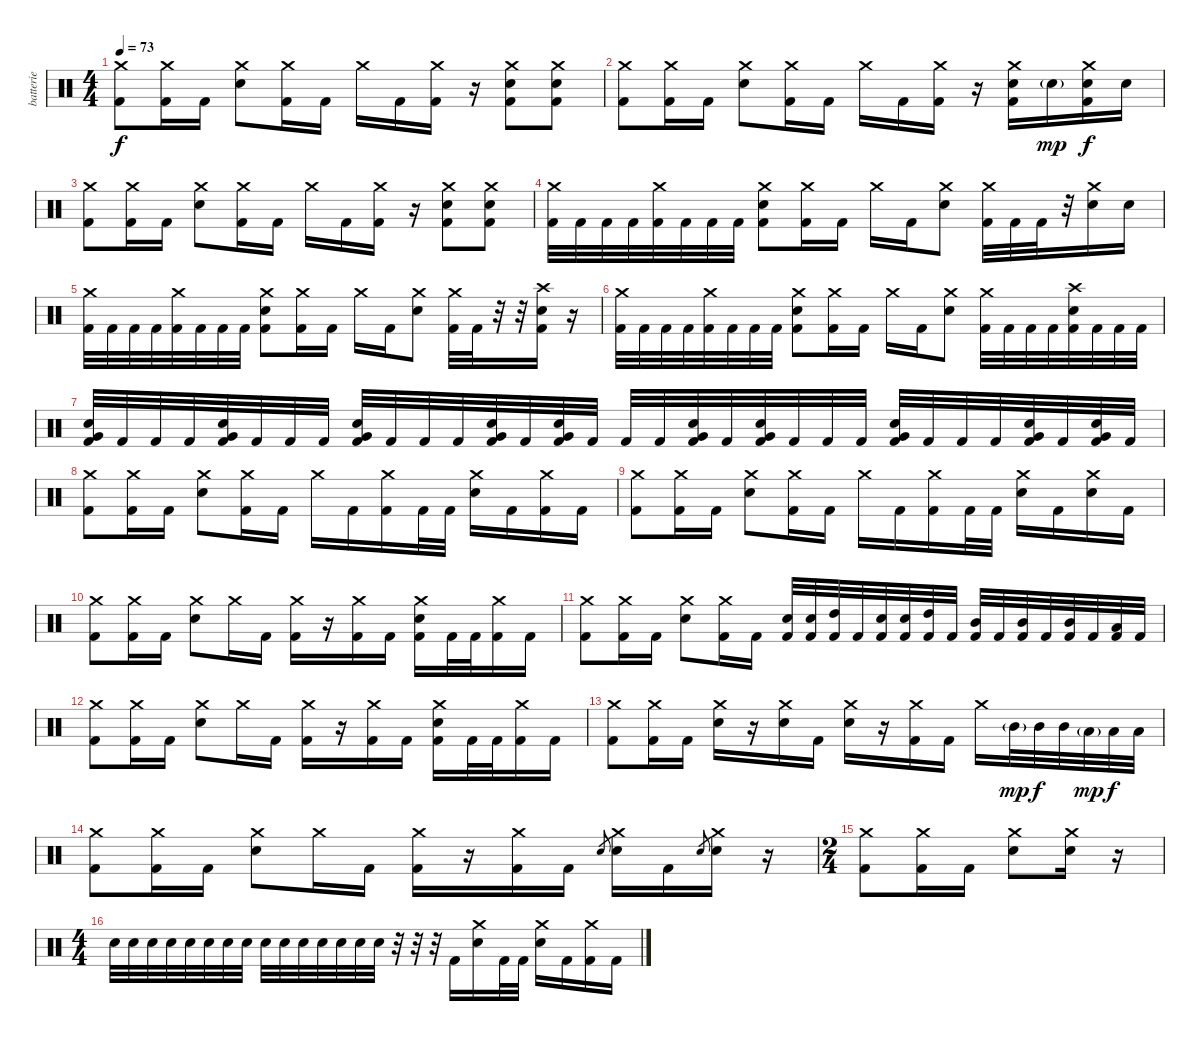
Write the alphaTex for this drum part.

\track ("batterie" "batterie") {instrument percussion}
\staff {score}
\articulation defaults
\ts (4 4)
\tempo 73
\clef neutral
\ks c
("Crash medium (hit)" "Kick (hit) 2").8{dy f} ("Crash medium (hit)" "Kick (hit) 2").16 "Kick (hit) 2".16 ("Crash medium (hit)" "Electric Snare (hit)").8 ("Crash medium (hit)" "Kick (hit) 2").16 "Kick (hit) 2".16 "Crash medium (hit)".16 "Kick (hit) 2".16 ("Crash medium (hit)" "Kick (hit) 2").16 r.16 ("Crash medium (hit)" "Electric Snare (hit)" "Kick (hit) 2").8 ("Crash medium (hit)" "Electric Snare (hit)" "Kick (hit) 2").8 |
("Crash medium (hit)" "Kick (hit) 2").8 ("Crash medium (hit)" "Kick (hit) 2").16 "Kick (hit) 2".16 ("Crash medium (hit)" "Electric Snare (hit)").8 ("Crash medium (hit)" "Kick (hit) 2").16 "Kick (hit) 2".16 "Crash medium (hit)".16 "Kick (hit) 2".16 ("Crash medium (hit)" "Kick (hit) 2").16 r.16 ("Crash medium (hit)" "Electric Snare (hit)" "Kick (hit) 2").16 "Electric Snare (hit)"{g}.16{dy mp} ("Crash medium (hit)" "Electric Snare (hit)" "Kick (hit) 2").16{dy f} "Electric Snare (hit)".16 |
("Crash medium (hit)" "Kick (hit) 2").8 ("Crash medium (hit)" "Kick (hit) 2").16 "Kick (hit) 2".16 ("Crash medium (hit)" "Electric Snare (hit)").8 ("Crash medium (hit)" "Kick (hit) 2").16 "Kick (hit) 2".16 "Crash medium (hit)".16 "Kick (hit) 2".16 ("Crash medium (hit)" "Kick (hit) 2").16 r.16 ("Crash medium (hit)" "Electric Snare (hit)" "Kick (hit) 2").8 ("Crash medium (hit)" "Electric Snare (hit)" "Kick (hit) 2").8 |
("Crash medium (hit)" "Kick (hit) 2").32 "Kick (hit) 2".32 "Kick (hit) 2".32 "Kick (hit) 2".32 ("Crash medium (hit)" "Kick (hit) 2").32 "Kick (hit) 2".32 "Kick (hit) 2".32 "Kick (hit) 2".32 ("Crash medium (hit)" "Electric Snare (hit)" "Kick (hit) 2").8 ("Crash medium (hit)" "Kick (hit) 2").16 "Kick (hit) 2".16 "Crash medium (hit)".16 "Kick (hit) 2".16 ("Crash medium (hit)" "Electric Snare (hit)").8 ("Crash medium (hit)" "Kick (hit) 2").32 "Kick (hit) 2".32 "Kick (hit) 2".32 r.32 ("Crash medium (hit)" "Electric Snare (hit)").16 "Electric Snare (hit)".16 |
("Crash medium (hit)" "Kick (hit) 2").32 "Kick (hit) 2".32 "Kick (hit) 2".32 "Kick (hit) 2".32 ("Crash medium (hit)" "Kick (hit) 2").32 "Kick (hit) 2".32 "Kick (hit) 2".32 "Kick (hit) 2".32 ("Crash medium (hit)" "Electric Snare (hit)" "Kick (hit) 2").8 ("Crash medium (hit)" "Kick (hit) 2").16 "Kick (hit) 2".16 "Crash medium (hit)".16 "Kick (hit) 2".16 ("Crash medium (hit)" "Electric Snare (hit)").8 ("Crash medium (hit)" "Kick (hit) 2").32 "Kick (hit) 2".32 r.32 r.32 ("Crash high (hit)" "Electric Snare (hit)" "Kick (hit) 2").16 r.16 |
("Crash medium (hit)" "Kick (hit) 2").32 "Kick (hit) 2".32 "Kick (hit) 2".32 "Kick (hit) 2".32 ("Crash medium (hit)" "Kick (hit) 2").32 "Kick (hit) 2".32 "Kick (hit) 2".32 "Kick (hit) 2".32 ("Crash medium (hit)" "Electric Snare (hit)" "Kick (hit) 2").8 ("Crash medium (hit)" "Kick (hit) 2").16 "Kick (hit) 2".16 "Crash medium (hit)".16 "Kick (hit) 2".16 ("Crash medium (hit)" "Electric Snare (hit)").8 ("Crash medium (hit)" "Kick (hit) 2").32 "Kick (hit) 2".32 "Kick (hit) 2".32 "Kick (hit) 2".32 ("Crash high (hit)" "Electric Snare (hit)" "Kick (hit) 2").32 "Kick (hit) 2".32 "Kick (hit) 2".32 "Kick (hit) 2".32 |
("Very Low Tom (hit)" "Electric Snare (hit)" "Kick (hit) 2").32 "Kick (hit) 2".32 "Kick (hit) 2".32 "Kick (hit) 2".32 ("Very Low Tom (hit)" "Electric Snare (hit)" "Kick (hit) 2").32 "Kick (hit) 2".32 "Kick (hit) 2".32 "Kick (hit) 2".32 ("Very Low Tom (hit)" "Electric Snare (hit)" "Kick (hit) 2").32 "Kick (hit) 2".32 "Kick (hit) 2".32 "Kick (hit) 2".32 ("Very Low Tom (hit)" "Electric Snare (hit)" "Kick (hit) 2").32 "Kick (hit) 2".32 ("Very Low Tom (hit)" "Electric Snare (hit)" "Kick (hit) 2").32 "Kick (hit) 2".32 "Kick (hit) 2".32 "Kick (hit) 2".32 ("Very Low Tom (hit)" "Electric Snare (hit)" "Kick (hit) 2").32 "Kick (hit) 2".32 ("Very Low Tom (hit)" "Electric Snare (hit)" "Kick (hit) 2").32 "Kick (hit) 2".32 "Kick (hit) 2".32 "Kick (hit) 2".32 ("Very Low Tom (hit)" "Electric Snare (hit)" "Kick (hit) 2").32 "Kick (hit) 2".32 "Kick (hit) 2".32 "Kick (hit) 2".32 ("Very Low Tom (hit)" "Electric Snare (hit)" "Kick (hit) 2").32 "Kick (hit) 2".32 ("Very Low Tom (hit)" "Electric Snare (hit)" "Kick (hit) 2").32 "Kick (hit) 2".32 |
("Crash medium (hit)" "Kick (hit) 2").8 ("Crash medium (hit)" "Kick (hit) 2").16 "Kick (hit) 2".16 ("Crash medium (hit)" "Electric Snare (hit)").8 ("Crash medium (hit)" "Kick (hit) 2").16 "Kick (hit) 2".16 "Crash medium (hit)".16 "Kick (hit) 2".16 ("Crash medium (hit)" "Kick (hit) 2").16 "Kick (hit) 2".32 "Kick (hit) 2".32 ("Crash medium (hit)" "Electric Snare (hit)").16 "Kick (hit) 2".16 ("Crash medium (hit)" "Kick (hit) 2").16 "Kick (hit) 2".16 |
("Crash medium (hit)" "Kick (hit) 2").8 ("Crash medium (hit)" "Kick (hit) 2").16 "Kick (hit) 2".16 ("Crash medium (hit)" "Electric Snare (hit)").8 ("Crash medium (hit)" "Kick (hit) 2").16 "Kick (hit) 2".16 "Crash medium (hit)".16 "Kick (hit) 2".16 ("Crash medium (hit)" "Kick (hit) 2").16 "Kick (hit) 2".32 "Kick (hit) 2".32 ("Crash medium (hit)" "Electric Snare (hit)").16 "Kick (hit) 2".16 ("Crash medium (hit)" "Electric Snare (hit)").16 "Kick (hit) 2".16 |
("Crash medium (hit)" "Kick (hit) 2").8 ("Crash medium (hit)" "Kick (hit) 2").16 "Kick (hit) 2".16 ("Crash medium (hit)" "Electric Snare (hit)").8 "Crash medium (hit)".16 "Kick (hit) 2".16 ("Crash medium (hit)" "Kick (hit) 2").16 r.16 ("Crash medium (hit)" "Kick (hit) 2").16 "Kick (hit) 2".16 ("Crash medium (hit)" "Electric Snare (hit)" "Kick (hit) 2").16 "Kick (hit) 2".32 "Kick (hit) 2".32 ("Crash medium (hit)" "Kick (hit) 2").16 "Kick (hit) 2".16 |
("Crash medium (hit)" "Kick (hit) 2").8 ("Crash medium (hit)" "Kick (hit) 2").16 "Kick (hit) 2".16 ("Crash medium (hit)" "Electric Snare (hit)").8 ("Crash medium (hit)" "Kick (hit) 2").16 "Kick (hit) 2".16 ("Snare (hit) 2" "Kick (hit) 2").32 ("Snare (hit) 2" "Kick (hit) 2").32 ("High Tom (hit)" "Kick (hit) 2").32 "Kick (hit) 2".32 ("Snare (hit) 2" "Kick (hit) 2").32 ("Snare (hit) 2" "Kick (hit) 2").32 ("High Tom (hit)" "Kick (hit) 2").32 "Kick (hit) 2".32 ("Mid Tom (hit)" "Kick (hit) 2").32 "Kick (hit) 2".32 ("Mid Tom (hit)" "Kick (hit) 2").32 "Kick (hit) 2".32 ("Mid Tom (hit)" "Kick (hit) 2").32 "Kick (hit) 2".32 ("Low Tom (hit)" "Kick (hit) 2").32 "Kick (hit) 2".32 |
("Crash medium (hit)" "Kick (hit) 2").8 ("Crash medium (hit)" "Kick (hit) 2").16 "Kick (hit) 2".16 ("Crash medium (hit)" "Electric Snare (hit)").8 "Crash medium (hit)".16 "Kick (hit) 2".16 ("Crash medium (hit)" "Kick (hit) 2").16 r.16 ("Crash medium (hit)" "Kick (hit) 2").16 "Kick (hit) 2".16 ("Crash medium (hit)" "Electric Snare (hit)" "Kick (hit) 2").16 "Kick (hit) 2".32 "Kick (hit) 2".32 ("Crash medium (hit)" "Kick (hit) 2").16 "Kick (hit) 2".16 |
("Crash medium (hit)" "Kick (hit) 2").8 ("Crash medium (hit)" "Kick (hit) 2").16 "Kick (hit) 2".16 ("Crash medium (hit)" "Electric Snare (hit)").16 r.16 ("Crash medium (hit)" "Snare (hit) 2").16 "Kick (hit) 2".16 ("Crash medium (hit)" "Snare (hit) 2").16 r.16 ("Crash medium (hit)" "Kick (hit) 2").16 "Kick (hit) 2".16 "Crash medium (hit)".16 "Mid Tom (hit)"{g}.32{dy mp} "Mid Tom (hit)".32{dy f} "Mid Tom (hit)".32 "Low Tom (hit)"{g}.32{dy mp} "Low Tom (hit)".32{dy f} "Low Tom (hit)".32 |
("Crash medium (hit)" "Kick (hit) 2").8 ("Crash medium (hit)" "Kick (hit) 2").16 "Kick (hit) 2".16 ("Crash medium (hit)" "Electric Snare (hit)").8 "Crash medium (hit)".16 "Kick (hit) 2".16 ("Crash medium (hit)" "Kick (hit) 2").16 r.16 ("Crash medium (hit)" "Kick (hit) 2").16 "Kick (hit) 2".16 "Electric Snare (hit)".8{gr} ("Crash medium (hit)" "Electric Snare (hit)").16 "Kick (hit) 2".16 "Electric Snare (hit)".8{gr} ("Crash medium (hit)" "Electric Snare (hit)").16 r.16 |
\ts (2 4)
("Crash medium (hit)" "Kick (hit) 2").8 ("Crash medium (hit)" "Kick (hit) 2").16 "Kick (hit) 2".16 ("Crash medium (hit)" "Electric Snare (hit)").8 ("Crash medium (hit)" "Electric Snare (hit)").16 r.16 |
\ts (4 4)
"Electric Snare (hit)".32 "Electric Snare (hit)".32 "Electric Snare (hit)".32 "Electric Snare (hit)".32 "Electric Snare (hit)".32 "Electric Snare (hit)".32 "Electric Snare (hit)".32 "Electric Snare (hit)".32 "Electric Snare (hit)".32 "Electric Snare (hit)".32 "Electric Snare (hit)".32 "Electric Snare (hit)".32 "Electric Snare (hit)".32 "Electric Snare (hit)".32 "Electric Snare (hit)".32 r.32 r.32 r.32 "Kick (hit) 2".16 ("Crash medium (hit)" "Electric Snare (hit)").16 "Kick (hit) 2".32 "Kick (hit) 2".32 ("Crash medium (hit)" "Electric Snare (hit)").16 "Kick (hit) 2".16 ("Crash medium (hit)" "Kick (hit) 2").16 "Kick (hit) 2".16
